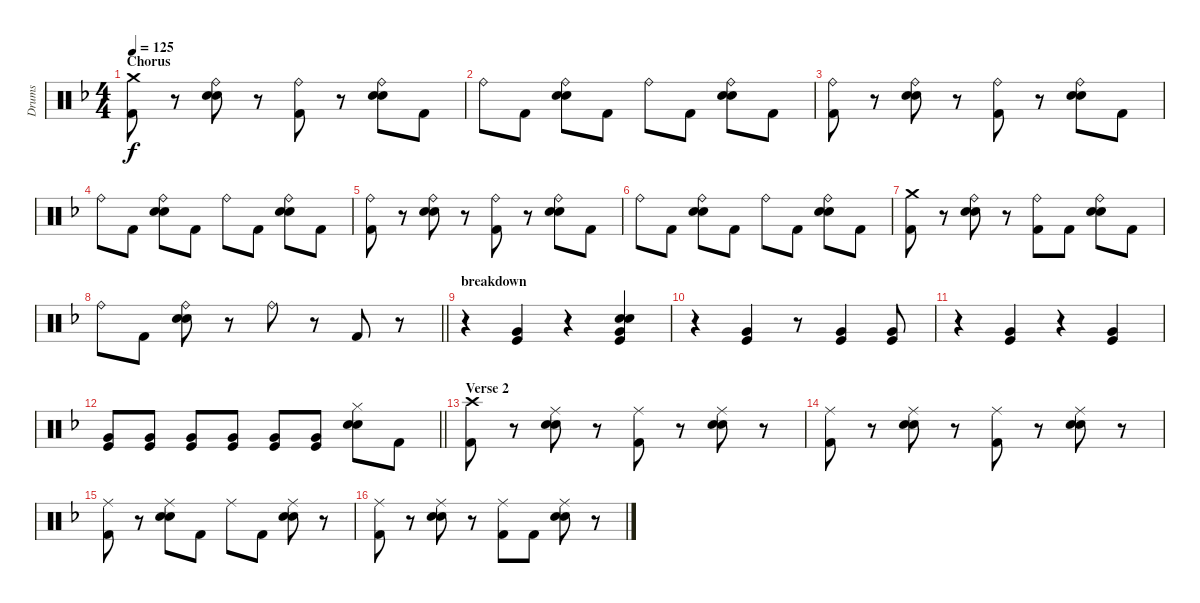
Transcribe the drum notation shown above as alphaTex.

\track ("Drums" "Drums") {instrument percussion}
\staff {score}
\articulation defaults
\ts (4 4)
\section ("" "Chorus")
\tempo 125
\clef neutral
\ks f
("Crash medium (hit)" "Kick (hit) 2").8{dy f} r.8 ("Ride (bell)" "Electric Snare (hit)" "Snare (hit) 2").8 r.8 ("Ride (bell)" "Kick (hit) 2").8 r.8 ("Ride (bell)" "Electric Snare (hit)" "Snare (hit) 2").8 "Kick (hit) 2".8 |
"Ride (bell)".8 "Kick (hit) 2".8 ("Ride (bell)" "Electric Snare (hit)" "Snare (hit) 2").8 "Kick (hit) 2".8 "Ride (bell)".8 "Kick (hit) 2".8 ("Ride (bell)" "Electric Snare (hit)" "Snare (hit) 2").8 "Kick (hit) 2".8 |
("Ride (bell)" "Kick (hit) 2").8 r.8 ("Ride (bell)" "Electric Snare (hit)" "Snare (hit) 2").8 r.8 ("Ride (bell)" "Kick (hit) 2").8 r.8 ("Ride (bell)" "Electric Snare (hit)" "Snare (hit) 2").8 "Kick (hit) 2".8 |
"Ride (bell)".8 "Kick (hit) 2".8 ("Ride (bell)" "Electric Snare (hit)" "Snare (hit) 2").8 "Kick (hit) 2".8 "Ride (bell)".8 "Kick (hit) 2".8 ("Ride (bell)" "Electric Snare (hit)" "Snare (hit) 2").8 "Kick (hit) 2".8 |
("Ride (bell)" "Kick (hit) 2").8 r.8 ("Ride (bell)" "Electric Snare (hit)" "Snare (hit) 2").8 r.8 ("Ride (bell)" "Kick (hit) 2").8 r.8 ("Ride (bell)" "Electric Snare (hit)" "Snare (hit) 2").8 "Kick (hit) 2".8 |
"Ride (bell)".8 "Kick (hit) 2".8 ("Ride (bell)" "Electric Snare (hit)" "Snare (hit) 2").8 "Kick (hit) 2".8 "Ride (bell)".8 "Kick (hit) 2".8 ("Ride (bell)" "Electric Snare (hit)" "Snare (hit) 2").8 "Kick (hit) 2".8 |
("Crash medium (hit)" "Kick (hit) 2").8 r.8 ("Ride (bell)" "Electric Snare (hit)" "Snare (hit) 2").8 r.8 ("Ride (bell)" "Kick (hit) 2").8 "Kick (hit) 2".8 ("Ride (bell)" "Electric Snare (hit)" "Snare (hit) 2").8 "Kick (hit) 2".8 |
\barLineRight lightlight "Ride (bell)".8 "Kick (hit) 2".8
("Ride (bell)" "Electric Snare (hit)" "Snare (hit) 2").8 r.8 "Ride (bell)".8 r.8 "Kick (hit) 2".8 r.8 |
\section ("" "breakdown")
r.4 ("Very Low Tom (hit)" "Kick (hit)").4 r.4 ("Electric Snare (hit)" "Snare (hit) 2" "Very Low Tom (hit)" "Kick (hit)").4 |
r.4 ("Very Low Tom (hit)" "Kick (hit)").4 r.8 ("Very Low Tom (hit)" "Kick (hit)").4 ("Very Low Tom (hit)" "Kick (hit)").8 |
r.4 ("Very Low Tom (hit)" "Kick (hit)").4 r.4 ("Very Low Tom (hit)" "Kick (hit)").4 |
\barLineRight lightlight
("Very Low Tom (hit)" "Kick (hit)").8 ("Very Low Tom (hit)" "Kick (hit)").8 ("Very Low Tom (hit)" "Kick (hit)").8 ("Very Low Tom (hit)" "Kick (hit)").8 ("Very Low Tom (hit)" "Kick (hit)").8 ("Very Low Tom (hit)" "Kick (hit)").8 ("Hi-Hat (closed)" "Electric Snare (hit)" "Snare (hit) 2").8 "Kick (hit) 2".8 |
\section ("" "Verse 2")
("Crash high (hit)" "Kick (hit) 2").8 r.8 ("Ride (middle)" "Electric Snare (hit)" "Snare (hit) 2").8 r.8 ("Ride (middle)" "Kick (hit) 2").8 r.8 ("Ride (middle)" "Electric Snare (hit)" "Snare (hit) 2").8 r.8 |
("Ride (middle)" "Kick (hit) 2").8 r.8 ("Ride (middle)" "Electric Snare (hit)" "Snare (hit) 2").8 r.8 ("Ride (middle)" "Kick (hit) 2").8 r.8 ("Ride (middle)" "Electric Snare (hit)" "Snare (hit) 2").8 r.8 |
("Ride (middle)" "Kick (hit) 2").8 r.8 ("Ride (middle)" "Electric Snare (hit)" "Snare (hit) 2").8 "Kick (hit) 2".8 "Ride (middle)".8 "Kick (hit) 2".8 ("Ride (middle)" "Electric Snare (hit)" "Snare (hit) 2").8 r.8 |
("Ride (middle)" "Kick (hit) 2").8 r.8 ("Ride (middle)" "Electric Snare (hit)" "Snare (hit) 2").8 r.8 ("Ride (middle)" "Kick (hit) 2").8 "Kick (hit) 2".8 ("Ride (middle)" "Electric Snare (hit)" "Snare (hit) 2").8 r.8
